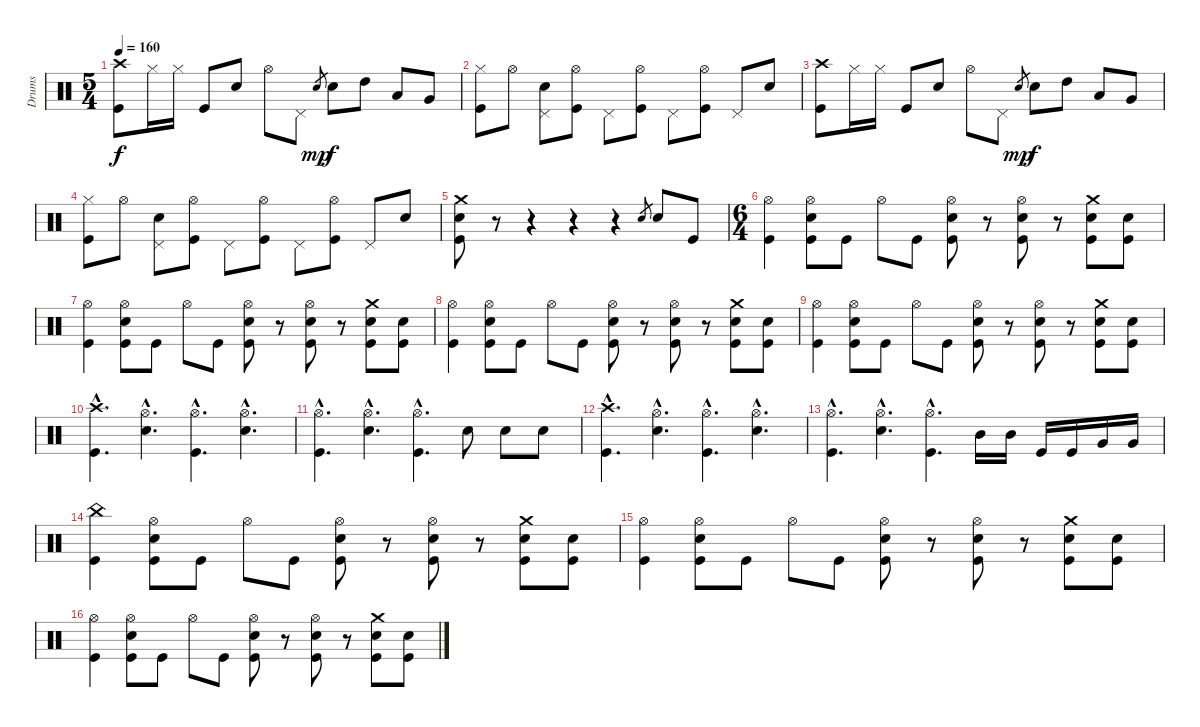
\track ("Drums" "Drums") {instrument percussion}
\staff {score}
\articulation defaults
\ts (5 4)
\tempo 160
\clef neutral
\ks c
("Crash high (hit)" "Kick (hit)").8{dy f} "Hi-Hat (closed)".16 "Hi-Hat (closed)".16 "Kick (hit)".8 "Electric Snare (hit)".8 "Hi-Hat (open)".8 "Pedal Hi-Hat (hit)".8 "Electric Snare (hit)".8{gr dy mp} "Electric Snare (hit)".8{dy f} "High Tom (hit)".8 "Low Tom (hit)".8 "Very Low Tom (hit)".8 |
("Hi-Hat (closed)" "Kick (hit)").8 "Hi-Hat (open)".8 ("Pedal Hi-Hat (hit)" "Electric Snare (hit)").8 ("Hi-Hat (open)" "Kick (hit)").8 "Pedal Hi-Hat (hit)".8 ("Hi-Hat (open)" "Kick (hit)").8 "Pedal Hi-Hat (hit)".8 ("Hi-Hat (open)" "Kick (hit)").8 "Pedal Hi-Hat (hit)".8 "Electric Snare (hit)".8 |
("Crash high (hit)" "Kick (hit)").8 "Hi-Hat (closed)".16 "Hi-Hat (closed)".16 "Kick (hit)".8 "Electric Snare (hit)".8 "Hi-Hat (open)".8 "Pedal Hi-Hat (hit)".8 "Electric Snare (hit)".8{gr dy mp} "Electric Snare (hit)".8{dy f} "High Tom (hit)".8 "Low Tom (hit)".8 "Very Low Tom (hit)".8 |
("Hi-Hat (closed)" "Kick (hit)").8 "Hi-Hat (open)".8 ("Pedal Hi-Hat (hit)" "Electric Snare (hit)").8 ("Hi-Hat (open)" "Kick (hit)").8 "Pedal Hi-Hat (hit)".8 ("Hi-Hat (open)" "Kick (hit)").8 "Pedal Hi-Hat (hit)".8 ("Hi-Hat (open)" "Kick (hit)").8 "Pedal Hi-Hat (hit)".8 "Electric Snare (hit)".8 |
("Crash medium (hit)" "Electric Snare (hit)" "Kick (hit)").8 r.8 r.4 r.4 r.4 "Electric Snare (hit)".8{gr} "Electric Snare (hit)".8 "Kick (hit)".8 |
\ts (6 4)
("Hi-Hat (open)" "Kick (hit)").4 ("Hi-Hat (open)" "Electric Snare (hit)" "Kick (hit)").8 "Kick (hit)".8 "Hi-Hat (open)".8 "Kick (hit)".8 ("Hi-Hat (open)" "Electric Snare (hit)" "Kick (hit)").8 r.8 ("Hi-Hat (open)" "Electric Snare (hit)" "Kick (hit)").8 r.8 ("Crash medium (hit)" "Electric Snare (hit)" "Kick (hit)").8 ("Electric Snare (hit)" "Kick (hit)").8 |
("Hi-Hat (open)" "Kick (hit)").4 ("Hi-Hat (open)" "Electric Snare (hit)" "Kick (hit)").8 "Kick (hit)".8 "Hi-Hat (open)".8 "Kick (hit)".8 ("Hi-Hat (open)" "Electric Snare (hit)" "Kick (hit)").8 r.8 ("Hi-Hat (open)" "Electric Snare (hit)" "Kick (hit)").8 r.8 ("Crash medium (hit)" "Electric Snare (hit)" "Kick (hit)").8 ("Electric Snare (hit)" "Kick (hit)").8 |
("Hi-Hat (open)" "Kick (hit)").4 ("Hi-Hat (open)" "Electric Snare (hit)" "Kick (hit)").8 "Kick (hit)".8 "Hi-Hat (open)".8 "Kick (hit)".8 ("Hi-Hat (open)" "Electric Snare (hit)" "Kick (hit)").8 r.8 ("Hi-Hat (open)" "Electric Snare (hit)" "Kick (hit)").8 r.8 ("Crash medium (hit)" "Electric Snare (hit)" "Kick (hit)").8 ("Electric Snare (hit)" "Kick (hit)").8 |
("Hi-Hat (open)" "Kick (hit)").4 ("Hi-Hat (open)" "Electric Snare (hit)" "Kick (hit)").8 "Kick (hit)".8 "Hi-Hat (open)".8 "Kick (hit)".8 ("Hi-Hat (open)" "Electric Snare (hit)" "Kick (hit)").8 r.8 ("Hi-Hat (open)" "Electric Snare (hit)" "Kick (hit)").8 r.8 ("Crash medium (hit)" "Electric Snare (hit)" "Kick (hit)").8 ("Electric Snare (hit)" "Kick (hit)").8 |
("Crash high (hit)"{hac} "Kick (hit)"{hac}).4{d} ("Hi-Hat (open)"{hac} "Electric Snare (hit)"{hac}).4{d} ("Hi-Hat (open)"{hac} "Kick (hit)"{hac}).4{d} ("Hi-Hat (open)"{hac} "Electric Snare (hit)"{hac}).4{d} |
("Hi-Hat (open)"{hac} "Kick (hit)"{hac}).4{d} ("Hi-Hat (open)"{hac} "Electric Snare (hit)"{hac}).4{d} ("Hi-Hat (open)"{hac} "Kick (hit)"{hac}).4{d} "Electric Snare (hit)".8 "Electric Snare (hit)".8 "Electric Snare (hit)".8 |
("Crash high (hit)"{hac} "Kick (hit)"{hac}).4{d} ("Hi-Hat (open)"{hac} "Electric Snare (hit)"{hac}).4{d} ("Hi-Hat (open)"{hac} "Kick (hit)"{hac}).4{d} ("Hi-Hat (open)"{hac} "Electric Snare (hit)"{hac}).4{d} |
("Hi-Hat (open)"{hac} "Kick (hit)"{hac}).4{d} ("Hi-Hat (open)"{hac} "Electric Snare (hit)"{hac}).4{d} ("Hi-Hat (open)"{hac} "Kick (hit)"{hac}).4{d} "Mid Tom (hit)".16 "Mid Tom (hit)".16 "Kick (hit)".16 "Kick (hit)".16 "Very Low Tom (hit)".16 "Very Low Tom (hit)".16 |
("China (hit)" "Kick (hit)").4 ("Hi-Hat (open)" "Electric Snare (hit)" "Kick (hit)").8 "Kick (hit)".8 "Hi-Hat (open)".8 "Kick (hit)".8 ("Hi-Hat (open)" "Electric Snare (hit)" "Kick (hit)").8 r.8 ("Hi-Hat (open)" "Electric Snare (hit)" "Kick (hit)").8 r.8 ("Crash medium (hit)" "Electric Snare (hit)" "Kick (hit)").8 ("Electric Snare (hit)" "Kick (hit)").8 |
("Hi-Hat (open)" "Kick (hit)").4 ("Hi-Hat (open)" "Electric Snare (hit)" "Kick (hit)").8 "Kick (hit)".8 "Hi-Hat (open)".8 "Kick (hit)".8 ("Hi-Hat (open)" "Electric Snare (hit)" "Kick (hit)").8 r.8 ("Hi-Hat (open)" "Electric Snare (hit)" "Kick (hit)").8 r.8 ("Crash medium (hit)" "Electric Snare (hit)" "Kick (hit)").8 ("Electric Snare (hit)" "Kick (hit)").8 |
("Hi-Hat (open)" "Kick (hit)").4 ("Hi-Hat (open)" "Electric Snare (hit)" "Kick (hit)").8 "Kick (hit)".8 "Hi-Hat (open)".8 "Kick (hit)".8 ("Hi-Hat (open)" "Electric Snare (hit)" "Kick (hit)").8 r.8 ("Hi-Hat (open)" "Electric Snare (hit)" "Kick (hit)").8 r.8 ("Crash medium (hit)" "Electric Snare (hit)" "Kick (hit)").8 ("Electric Snare (hit)" "Kick (hit)").8
